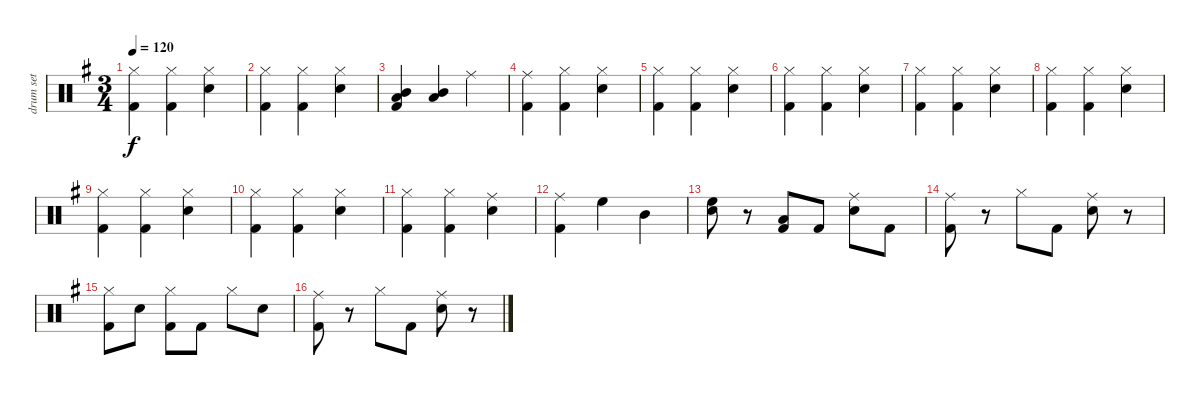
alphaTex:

\track ("drum set" "drum set") {instrument percussion}
\staff {score}
\articulation defaults
\ts (3 4)
\tempo 120
\clef neutral
\ks g
("Hi-Hat (closed)" "Kick (hit) 2").4{dy f} ("Hi-Hat (closed)" "Kick (hit) 2").4 ("Hi-Hat (closed)" "Snare (hit) 2").4 |
("Hi-Hat (closed)" "Kick (hit) 2").4 ("Hi-Hat (closed)" "Kick (hit) 2").4 ("Hi-Hat (closed)" "Snare (hit) 2").4 |
("Kick (hit) 2" "Low Floor Tom (hit)" "Mid Tom (hit)").4 ("Low Tom (hit)" "Mid Tom (hit)").4 "Ride (middle)".4 |
("Kick (hit) 2" "Ride (middle)").4 ("Kick (hit) 2" "Hi-Hat (closed)").4 ("Snare (hit) 2" "Hi-Hat (closed)").4 |
("Hi-Hat (closed)" "Kick (hit) 2").4 ("Hi-Hat (closed)" "Kick (hit) 2").4 ("Hi-Hat (closed)" "Snare (hit) 2").4 |
("Hi-Hat (closed)" "Kick (hit) 2").4 ("Hi-Hat (closed)" "Kick (hit) 2").4 ("Hi-Hat (closed)" "Snare (hit) 2").4 |
("Hi-Hat (closed)" "Kick (hit) 2").4 ("Hi-Hat (closed)" "Kick (hit) 2").4 ("Hi-Hat (closed)" "Snare (hit) 2").4 |
("Hi-Hat (closed)" "Kick (hit) 2").4 ("Hi-Hat (closed)" "Kick (hit) 2").4 ("Hi-Hat (closed)" "Snare (hit) 2").4 |
("Hi-Hat (closed)" "Kick (hit) 2").4 ("Hi-Hat (closed)" "Kick (hit) 2").4 ("Hi-Hat (closed)" "Snare (hit) 2").4 |
("Hi-Hat (closed)" "Kick (hit) 2").4 ("Hi-Hat (closed)" "Kick (hit) 2").4 ("Hi-Hat (closed)" "Snare (hit) 2").4 |
("Hi-Hat (closed)" "Kick (hit) 2").4 ("Hi-Hat (closed)" "Kick (hit) 2").4 ("Ride (middle)" "Snare (hit) 2").4 |
("Ride (middle)" "Kick (hit) 2").4 "High Floor Tom (hit)".4 "Mid Tom (hit)".4 |
("High Floor Tom (hit)" "Snare (hit) 2").8 r.8 ("Low Floor Tom (hit)" "Kick (hit) 2").8 "Kick (hit) 2".8 ("Ride (middle)" "Snare (hit) 2").8 "Kick (hit) 2".8 |
("Ride (middle)" "Kick (hit) 2").8 r.8 "Hi-Hat (closed)".8 "Kick (hit) 2".8 ("Ride (middle)" "Snare (hit) 2").8 r.8 |
("Hi-Hat (closed)" "Kick (hit) 2").8 "Snare (hit) 2".8 ("Hi-Hat (closed)" "Kick (hit) 2").8 "Kick (hit) 2".8 "Hi-Hat (closed)".8 "Snare (hit) 2".8 |
("Ride (middle)" "Kick (hit) 2").8 r.8 "Hi-Hat (closed)".8 "Kick (hit) 2".8 ("Ride (middle)" "Snare (hit) 2").8 r.8
